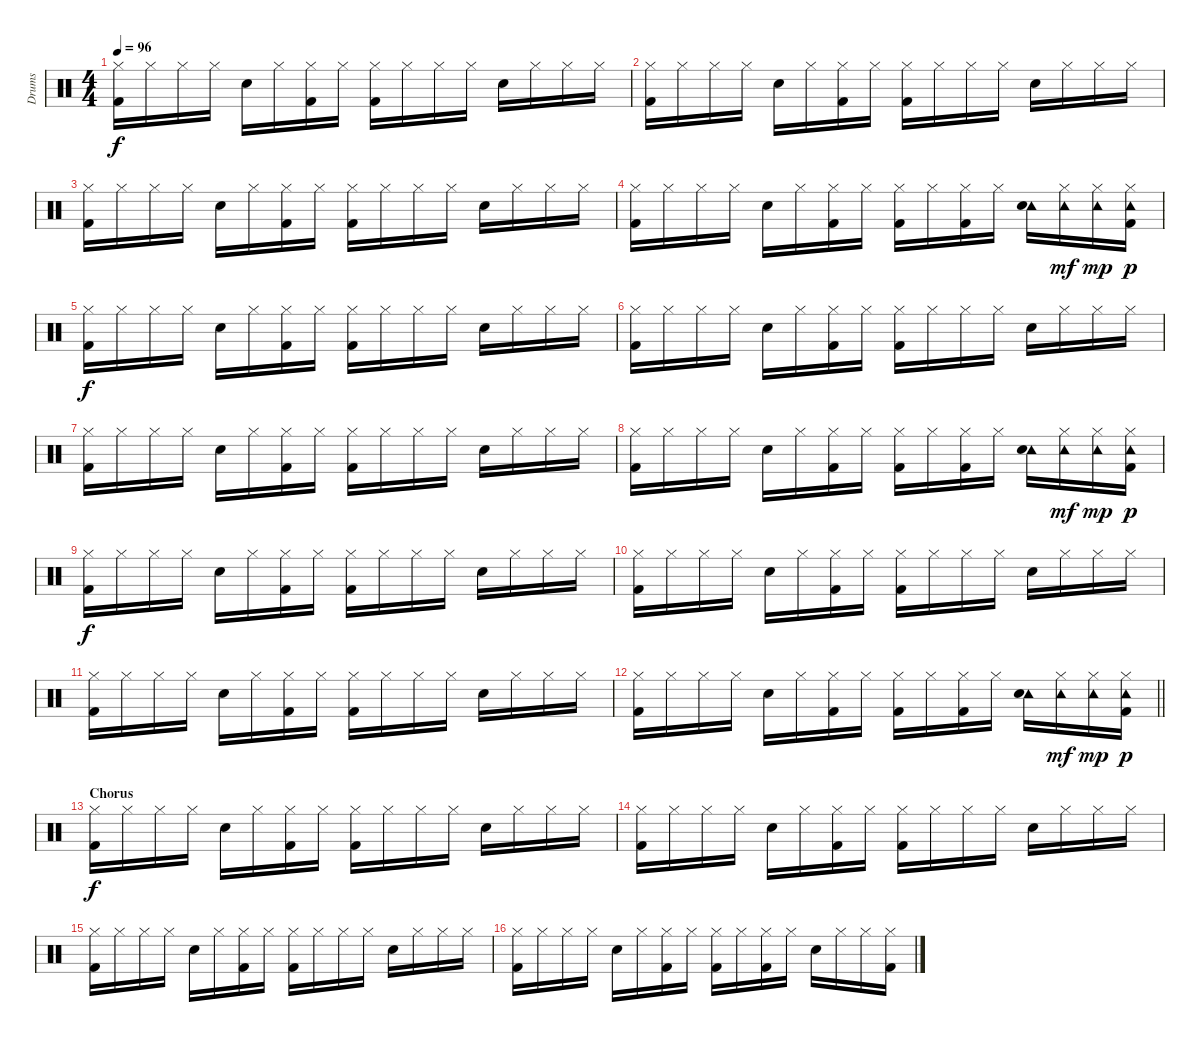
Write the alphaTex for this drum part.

\track ("Drums" "Drums") {instrument percussion}
\staff {score}
\articulation defaults
\ts (4 4)
\tempo 96
\clef neutral
\ks c
("Hi-Hat (closed)" "Kick (hit) 2").16{dy f} "Hi-Hat (closed)".16 "Hi-Hat (closed)".16 "Hi-Hat (closed)".16 "Snare (hit) 2".16 "Hi-Hat (closed)".16 ("Hi-Hat (closed)" "Kick (hit) 2").16 "Hi-Hat (closed)".16 ("Hi-Hat (closed)" "Kick (hit) 2").16 "Hi-Hat (closed)".16 "Hi-Hat (closed)".16 "Hi-Hat (closed)".16 "Snare (hit) 2".16 "Hi-Hat (closed)".16 "Hi-Hat (closed)".16 "Hi-Hat (closed)".16 |
("Hi-Hat (closed)" "Kick (hit) 2").16 "Hi-Hat (closed)".16 "Hi-Hat (closed)".16 "Hi-Hat (closed)".16 "Snare (hit) 2".16 "Hi-Hat (closed)".16 ("Hi-Hat (closed)" "Kick (hit) 2").16 "Hi-Hat (closed)".16 ("Hi-Hat (closed)" "Kick (hit) 2").16 "Hi-Hat (closed)".16 "Hi-Hat (closed)".16 "Hi-Hat (closed)".16 "Snare (hit) 2".16 "Hi-Hat (closed)".16 "Hi-Hat (closed)".16 "Hi-Hat (closed)".16 |
("Hi-Hat (closed)" "Kick (hit) 2").16 "Hi-Hat (closed)".16 "Hi-Hat (closed)".16 "Hi-Hat (closed)".16 "Snare (hit) 2".16 "Hi-Hat (closed)".16 ("Hi-Hat (closed)" "Kick (hit) 2").16 "Hi-Hat (closed)".16 ("Hi-Hat (closed)" "Kick (hit) 2").16 "Hi-Hat (closed)".16 "Hi-Hat (closed)".16 "Hi-Hat (closed)".16 "Snare (hit) 2".16 "Hi-Hat (closed)".16 "Hi-Hat (closed)".16 "Hi-Hat (closed)".16 |
("Hi-Hat (closed)" "Kick (hit) 2").16 "Hi-Hat (closed)".16 "Hi-Hat (closed)".16 "Hi-Hat (closed)".16 "Snare (hit) 2".16 "Hi-Hat (closed)".16 ("Hi-Hat (closed)" "Kick (hit) 2").16 "Hi-Hat (closed)".16 ("Hi-Hat (closed)" "Kick (hit) 2").16 "Hi-Hat (closed)".16 ("Hi-Hat (closed)" "Kick (hit) 2").16 "Hi-Hat (closed)".16 ("Tambourine (hit)" "Snare (hit) 2").16 ("Tambourine (hit)" "Hi-Hat (closed)").16{dy mf} ("Tambourine (hit)" "Hi-Hat (closed)").16{dy mp} ("Tambourine (hit)" "Hi-Hat (closed)" "Kick (hit) 2").16{dy p} |
("Hi-Hat (closed)" "Kick (hit) 2").16{dy f} "Hi-Hat (closed)".16 "Hi-Hat (closed)".16 "Hi-Hat (closed)".16 "Snare (hit) 2".16 "Hi-Hat (closed)".16 ("Hi-Hat (closed)" "Kick (hit) 2").16 "Hi-Hat (closed)".16 ("Hi-Hat (closed)" "Kick (hit) 2").16 "Hi-Hat (closed)".16 "Hi-Hat (closed)".16 "Hi-Hat (closed)".16 "Snare (hit) 2".16 "Hi-Hat (closed)".16 "Hi-Hat (closed)".16 "Hi-Hat (closed)".16 |
("Hi-Hat (closed)" "Kick (hit) 2").16 "Hi-Hat (closed)".16 "Hi-Hat (closed)".16 "Hi-Hat (closed)".16 "Snare (hit) 2".16 "Hi-Hat (closed)".16 ("Hi-Hat (closed)" "Kick (hit) 2").16 "Hi-Hat (closed)".16 ("Hi-Hat (closed)" "Kick (hit) 2").16 "Hi-Hat (closed)".16 "Hi-Hat (closed)".16 "Hi-Hat (closed)".16 "Snare (hit) 2".16 "Hi-Hat (closed)".16 "Hi-Hat (closed)".16 "Hi-Hat (closed)".16 |
("Hi-Hat (closed)" "Kick (hit) 2").16 "Hi-Hat (closed)".16 "Hi-Hat (closed)".16 "Hi-Hat (closed)".16 "Snare (hit) 2".16 "Hi-Hat (closed)".16 ("Hi-Hat (closed)" "Kick (hit) 2").16 "Hi-Hat (closed)".16 ("Hi-Hat (closed)" "Kick (hit) 2").16 "Hi-Hat (closed)".16 "Hi-Hat (closed)".16 "Hi-Hat (closed)".16 "Snare (hit) 2".16 "Hi-Hat (closed)".16 "Hi-Hat (closed)".16 "Hi-Hat (closed)".16 |
("Hi-Hat (closed)" "Kick (hit) 2").16 "Hi-Hat (closed)".16 "Hi-Hat (closed)".16 "Hi-Hat (closed)".16 "Snare (hit) 2".16 "Hi-Hat (closed)".16 ("Hi-Hat (closed)" "Kick (hit) 2").16 "Hi-Hat (closed)".16 ("Hi-Hat (closed)" "Kick (hit) 2").16 "Hi-Hat (closed)".16 ("Hi-Hat (closed)" "Kick (hit) 2").16 "Hi-Hat (closed)".16 ("Tambourine (hit)" "Snare (hit) 2").16 ("Tambourine (hit)" "Hi-Hat (closed)").16{dy mf} ("Tambourine (hit)" "Hi-Hat (closed)").16{dy mp} ("Tambourine (hit)" "Hi-Hat (closed)" "Kick (hit) 2").16{dy p} |
("Hi-Hat (closed)" "Kick (hit) 2").16{dy f} "Hi-Hat (closed)".16 "Hi-Hat (closed)".16 "Hi-Hat (closed)".16 "Snare (hit) 2".16 "Hi-Hat (closed)".16 ("Hi-Hat (closed)" "Kick (hit) 2").16 "Hi-Hat (closed)".16 ("Hi-Hat (closed)" "Kick (hit) 2").16 "Hi-Hat (closed)".16 "Hi-Hat (closed)".16 "Hi-Hat (closed)".16 "Snare (hit) 2".16 "Hi-Hat (closed)".16 "Hi-Hat (closed)".16 "Hi-Hat (closed)".16 |
("Hi-Hat (closed)" "Kick (hit) 2").16 "Hi-Hat (closed)".16 "Hi-Hat (closed)".16 "Hi-Hat (closed)".16 "Snare (hit) 2".16 "Hi-Hat (closed)".16 ("Hi-Hat (closed)" "Kick (hit) 2").16 "Hi-Hat (closed)".16 ("Hi-Hat (closed)" "Kick (hit) 2").16 "Hi-Hat (closed)".16 "Hi-Hat (closed)".16 "Hi-Hat (closed)".16 "Snare (hit) 2".16 "Hi-Hat (closed)".16 "Hi-Hat (closed)".16 "Hi-Hat (closed)".16 |
("Hi-Hat (closed)" "Kick (hit) 2").16 "Hi-Hat (closed)".16 "Hi-Hat (closed)".16 "Hi-Hat (closed)".16 "Snare (hit) 2".16 "Hi-Hat (closed)".16 ("Hi-Hat (closed)" "Kick (hit) 2").16 "Hi-Hat (closed)".16 ("Hi-Hat (closed)" "Kick (hit) 2").16 "Hi-Hat (closed)".16 "Hi-Hat (closed)".16 "Hi-Hat (closed)".16 "Snare (hit) 2".16 "Hi-Hat (closed)".16 "Hi-Hat (closed)".16 "Hi-Hat (closed)".16 |
\barLineRight lightlight
("Hi-Hat (closed)" "Kick (hit) 2").16 "Hi-Hat (closed)".16 "Hi-Hat (closed)".16 "Hi-Hat (closed)".16 "Snare (hit) 2".16 "Hi-Hat (closed)".16 ("Hi-Hat (closed)" "Kick (hit) 2").16 "Hi-Hat (closed)".16 ("Hi-Hat (closed)" "Kick (hit) 2").16 "Hi-Hat (closed)".16 ("Hi-Hat (closed)" "Kick (hit) 2").16 "Hi-Hat (closed)".16 ("Tambourine (hit)" "Snare (hit) 2").16 ("Tambourine (hit)" "Hi-Hat (closed)").16{dy mf} ("Tambourine (hit)" "Hi-Hat (closed)").16{dy mp} ("Tambourine (hit)" "Hi-Hat (closed)" "Kick (hit) 2").16{dy p} |
\section ("" "Chorus")
("Hi-Hat (closed)" "Kick (hit) 2").16{dy f} "Hi-Hat (closed)".16 "Hi-Hat (closed)".16 "Hi-Hat (closed)".16 "Snare (hit) 2".16 "Hi-Hat (closed)".16 ("Hi-Hat (closed)" "Kick (hit) 2").16 "Hi-Hat (closed)".16 ("Hi-Hat (closed)" "Kick (hit) 2").16 "Hi-Hat (closed)".16 "Hi-Hat (closed)".16 "Hi-Hat (closed)".16 "Snare (hit) 2".16 "Hi-Hat (closed)".16 "Hi-Hat (closed)".16 "Hi-Hat (closed)".16 |
("Hi-Hat (closed)" "Kick (hit) 2").16 "Hi-Hat (closed)".16 "Hi-Hat (closed)".16 "Hi-Hat (closed)".16 "Snare (hit) 2".16 "Hi-Hat (closed)".16 ("Hi-Hat (closed)" "Kick (hit) 2").16 "Hi-Hat (closed)".16 ("Hi-Hat (closed)" "Kick (hit) 2").16 "Hi-Hat (closed)".16 "Hi-Hat (closed)".16 "Hi-Hat (closed)".16 "Snare (hit) 2".16 "Hi-Hat (closed)".16 "Hi-Hat (closed)".16 "Hi-Hat (closed)".16 |
("Hi-Hat (closed)" "Kick (hit) 2").16 "Hi-Hat (closed)".16 "Hi-Hat (closed)".16 "Hi-Hat (closed)".16 "Snare (hit) 2".16 "Hi-Hat (closed)".16 ("Hi-Hat (closed)" "Kick (hit) 2").16 "Hi-Hat (closed)".16 ("Hi-Hat (closed)" "Kick (hit) 2").16 "Hi-Hat (closed)".16 "Hi-Hat (closed)".16 "Hi-Hat (closed)".16 "Snare (hit) 2".16 "Hi-Hat (closed)".16 "Hi-Hat (closed)".16 "Hi-Hat (closed)".16 |
("Hi-Hat (closed)" "Kick (hit) 2").16 "Hi-Hat (closed)".16 "Hi-Hat (closed)".16 "Hi-Hat (closed)".16 "Snare (hit) 2".16 "Hi-Hat (closed)".16 ("Hi-Hat (closed)" "Kick (hit) 2").16 "Hi-Hat (closed)".16 ("Hi-Hat (closed)" "Kick (hit) 2").16 "Hi-Hat (closed)".16 ("Hi-Hat (closed)" "Kick (hit) 2").16 "Hi-Hat (closed)".16 "Snare (hit) 2".16 "Hi-Hat (closed)".16 "Hi-Hat (closed)".16 ("Hi-Hat (closed)" "Kick (hit) 2").16
